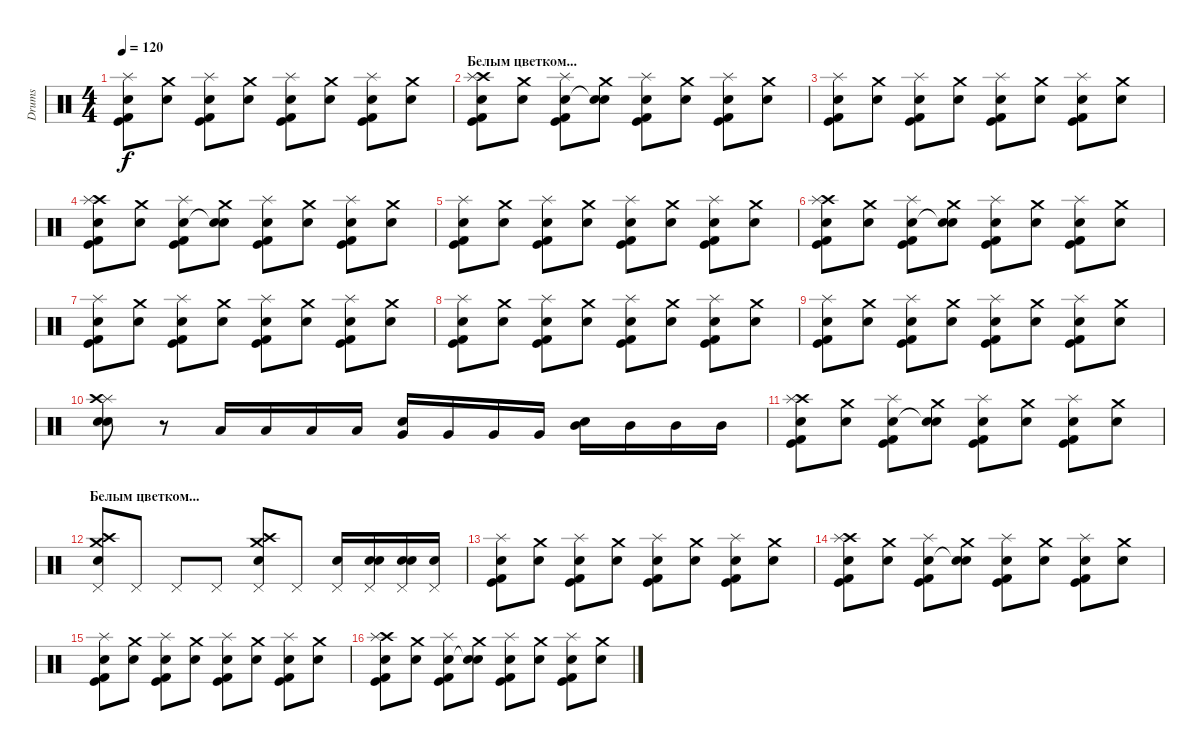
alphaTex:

\track ("Drums" "Drums") {instrument percussion}
\staff {score}
\articulation defaults
\ts (4 4)
\tempo 120
\clef neutral
\ks c
("Kick (hit)" "Electric Snare (hit)" "Kick (hit) 2" "Splash (hit)").8{dy f} ("Crash medium (hit)" "Snare (hit) 2").8 ("Kick (hit)" "Electric Snare (hit)" "Kick (hit) 2" "Splash (hit)").8 ("Crash medium (hit)" "Snare (hit) 2").8 ("Kick (hit)" "Electric Snare (hit)" "Kick (hit) 2" "Splash (hit)").8 ("Crash medium (hit)" "Snare (hit) 2").8 ("Kick (hit)" "Electric Snare (hit)" "Kick (hit) 2" "Splash (hit)").8 ("Crash medium (hit)" "Snare (hit) 2").8 |
\section ("" "Белым цветком...")
("Kick (hit)" "Crash high (hit)" "Electric Snare (hit)" "Kick (hit) 2" "Splash (hit)").8 ("Crash medium (hit)" "Snare (hit) 2").8 ("Kick (hit)" "Electric Snare (hit)" "Kick (hit) 2" "Splash (hit)").8 ("Crash medium (hit)" "Snare (hit)"{t} "Snare (hit) 2").8 ("Kick (hit)" "Electric Snare (hit)" "Kick (hit) 2" "Splash (hit)").8 ("Crash medium (hit)" "Snare (hit) 2").8 ("Kick (hit)" "Electric Snare (hit)" "Kick (hit) 2" "Splash (hit)").8 ("Crash medium (hit)" "Snare (hit) 2").8 |
("Kick (hit)" "Electric Snare (hit)" "Kick (hit) 2" "Splash (hit)").8 ("Crash medium (hit)" "Snare (hit) 2").8 ("Kick (hit)" "Electric Snare (hit)" "Kick (hit) 2" "Splash (hit)").8 ("Crash medium (hit)" "Snare (hit) 2").8 ("Kick (hit)" "Electric Snare (hit)" "Kick (hit) 2" "Splash (hit)").8 ("Crash medium (hit)" "Snare (hit) 2").8 ("Kick (hit)" "Electric Snare (hit)" "Kick (hit) 2" "Splash (hit)").8 ("Crash medium (hit)" "Snare (hit) 2").8 |
("Kick (hit)" "Crash high (hit)" "Electric Snare (hit)" "Kick (hit) 2" "Splash (hit)").8 ("Crash medium (hit)" "Snare (hit) 2").8 ("Kick (hit)" "Electric Snare (hit)" "Kick (hit) 2" "Splash (hit)").8 ("Crash medium (hit)" "Snare (hit)"{t} "Snare (hit) 2").8 ("Kick (hit)" "Electric Snare (hit)" "Kick (hit) 2" "Splash (hit)").8 ("Crash medium (hit)" "Snare (hit) 2").8 ("Kick (hit)" "Electric Snare (hit)" "Kick (hit) 2" "Splash (hit)").8 ("Crash medium (hit)" "Snare (hit) 2").8 |
("Kick (hit)" "Electric Snare (hit)" "Kick (hit) 2" "Splash (hit)").8 ("Crash medium (hit)" "Snare (hit) 2").8 ("Kick (hit)" "Electric Snare (hit)" "Kick (hit) 2" "Splash (hit)").8 ("Crash medium (hit)" "Snare (hit) 2").8 ("Kick (hit)" "Electric Snare (hit)" "Kick (hit) 2" "Splash (hit)").8 ("Crash medium (hit)" "Snare (hit) 2").8 ("Kick (hit)" "Electric Snare (hit)" "Kick (hit) 2" "Splash (hit)").8 ("Crash medium (hit)" "Snare (hit) 2").8 |
("Kick (hit)" "Crash high (hit)" "Electric Snare (hit)" "Kick (hit) 2" "Splash (hit)").8 ("Crash medium (hit)" "Snare (hit) 2").8 ("Kick (hit)" "Electric Snare (hit)" "Kick (hit) 2" "Splash (hit)").8 ("Crash medium (hit)" "Snare (hit)"{t} "Snare (hit) 2").8 ("Kick (hit)" "Electric Snare (hit)" "Kick (hit) 2" "Splash (hit)").8 ("Crash medium (hit)" "Snare (hit) 2").8 ("Kick (hit)" "Electric Snare (hit)" "Kick (hit) 2" "Splash (hit)").8 ("Crash medium (hit)" "Snare (hit) 2").8 |
("Kick (hit)" "Electric Snare (hit)" "Kick (hit) 2" "Splash (hit)").8 ("Crash medium (hit)" "Snare (hit) 2").8 ("Kick (hit)" "Electric Snare (hit)" "Kick (hit) 2" "Splash (hit)").8 ("Crash medium (hit)" "Snare (hit) 2").8 ("Kick (hit)" "Electric Snare (hit)" "Kick (hit) 2" "Splash (hit)").8 ("Crash medium (hit)" "Snare (hit) 2").8 ("Kick (hit)" "Electric Snare (hit)" "Kick (hit) 2" "Splash (hit)").8 ("Crash medium (hit)" "Snare (hit) 2").8 |
("Kick (hit)" "Electric Snare (hit)" "Kick (hit) 2" "Splash (hit)").8 ("Crash medium (hit)" "Snare (hit) 2").8 ("Kick (hit)" "Electric Snare (hit)" "Kick (hit) 2" "Splash (hit)").8 ("Crash medium (hit)" "Snare (hit) 2").8 ("Kick (hit)" "Electric Snare (hit)" "Kick (hit) 2" "Splash (hit)").8 ("Crash medium (hit)" "Snare (hit) 2").8 ("Kick (hit)" "Electric Snare (hit)" "Kick (hit) 2" "Splash (hit)").8 ("Crash medium (hit)" "Snare (hit) 2").8 |
("Kick (hit)" "Electric Snare (hit)" "Kick (hit) 2" "Splash (hit)").8 ("Crash medium (hit)" "Snare (hit) 2").8 ("Kick (hit)" "Electric Snare (hit)" "Kick (hit) 2" "Splash (hit)").8 ("Crash medium (hit)" "Snare (hit) 2").8 ("Kick (hit)" "Electric Snare (hit)" "Kick (hit) 2" "Splash (hit)").8 ("Crash medium (hit)" "Snare (hit) 2").8 ("Kick (hit)" "Electric Snare (hit)" "Kick (hit) 2" "Splash (hit)").8 ("Crash medium (hit)" "Snare (hit) 2").8 |
("Splash (hit)" "Snare (hit) 2" "Electric Snare (hit)" "Crash high (hit)").8 r.8 "Low Floor Tom (hit)".16 "Low Floor Tom (hit)".16 "Low Floor Tom (hit)".16 "Low Floor Tom (hit)".16 ("Snare (hit) 2" "Very Low Tom (hit)").16 "Very Low Tom (hit)".16 "Very Low Tom (hit)".16 "Very Low Tom (hit)".16 ("Electric Snare (hit)" "Mid Tom (hit)").16 "Mid Tom (hit)".16 "Mid Tom (hit)".16 "Mid Tom (hit)".16 |
("Kick (hit)" "Crash high (hit)" "Electric Snare (hit)" "Kick (hit) 2" "Splash (hit)").8 ("Crash medium (hit)" "Snare (hit) 2").8 ("Kick (hit)" "Electric Snare (hit)" "Kick (hit) 2" "Splash (hit)").8 ("Crash medium (hit)" "Snare (hit)"{t} "Snare (hit) 2").8 ("Kick (hit)" "Electric Snare (hit)" "Kick (hit) 2" "Splash (hit)").8 ("Crash medium (hit)" "Snare (hit) 2").8 ("Kick (hit)" "Electric Snare (hit)" "Kick (hit) 2" "Splash (hit)").8 ("Crash medium (hit)" "Snare (hit) 2").8 |
\section ("" "Белым цветком...")
("Electric Snare (hit)" "Pedal Hi-Hat (hit)" "Crash medium (hit)" "Crash high (hit)").8 "Pedal Hi-Hat (hit)".8 "Pedal Hi-Hat (hit)".8 "Pedal Hi-Hat (hit)".8 ("Electric Snare (hit)" "Pedal Hi-Hat (hit)" "Crash medium (hit)" "Crash high (hit)").8 "Pedal Hi-Hat (hit)".8 ("Pedal Hi-Hat (hit)" "Snare (hit) 2").16 ("Pedal Hi-Hat (hit)" "Electric Snare (hit)" "Snare (hit) 2").16 ("Pedal Hi-Hat (hit)" "Electric Snare (hit)" "Snare (hit) 2").16 ("Pedal Hi-Hat (hit)" "Snare (hit) 2").16 |
("Kick (hit)" "Electric Snare (hit)" "Kick (hit) 2" "Splash (hit)").8 ("Crash medium (hit)" "Snare (hit) 2").8 ("Kick (hit)" "Electric Snare (hit)" "Kick (hit) 2" "Splash (hit)").8 ("Crash medium (hit)" "Snare (hit) 2").8 ("Kick (hit)" "Electric Snare (hit)" "Kick (hit) 2" "Splash (hit)").8 ("Crash medium (hit)" "Snare (hit) 2").8 ("Kick (hit)" "Electric Snare (hit)" "Kick (hit) 2" "Splash (hit)").8 ("Crash medium (hit)" "Snare (hit) 2").8 |
("Kick (hit)" "Crash high (hit)" "Electric Snare (hit)" "Kick (hit) 2" "Splash (hit)").8 ("Crash medium (hit)" "Snare (hit) 2").8 ("Kick (hit)" "Electric Snare (hit)" "Kick (hit) 2" "Splash (hit)").8 ("Crash medium (hit)" "Snare (hit)"{t} "Snare (hit) 2").8 ("Kick (hit)" "Electric Snare (hit)" "Kick (hit) 2" "Splash (hit)").8 ("Crash medium (hit)" "Snare (hit) 2").8 ("Kick (hit)" "Electric Snare (hit)" "Kick (hit) 2" "Splash (hit)").8 ("Crash medium (hit)" "Snare (hit) 2").8 |
("Kick (hit)" "Electric Snare (hit)" "Kick (hit) 2" "Splash (hit)").8 ("Crash medium (hit)" "Snare (hit) 2").8 ("Kick (hit)" "Electric Snare (hit)" "Kick (hit) 2" "Splash (hit)").8 ("Crash medium (hit)" "Snare (hit) 2").8 ("Kick (hit)" "Electric Snare (hit)" "Kick (hit) 2" "Splash (hit)").8 ("Crash medium (hit)" "Snare (hit) 2").8 ("Kick (hit)" "Electric Snare (hit)" "Kick (hit) 2" "Splash (hit)").8 ("Crash medium (hit)" "Snare (hit) 2").8 |
("Kick (hit)" "Crash high (hit)" "Electric Snare (hit)" "Kick (hit) 2" "Splash (hit)").8 ("Crash medium (hit)" "Snare (hit) 2").8 ("Kick (hit)" "Electric Snare (hit)" "Kick (hit) 2" "Splash (hit)").8 ("Crash medium (hit)" "Snare (hit)"{t} "Snare (hit) 2").8 ("Kick (hit)" "Electric Snare (hit)" "Kick (hit) 2" "Splash (hit)").8 ("Crash medium (hit)" "Snare (hit) 2").8 ("Kick (hit)" "Electric Snare (hit)" "Kick (hit) 2" "Splash (hit)").8 ("Crash medium (hit)" "Snare (hit) 2").8
